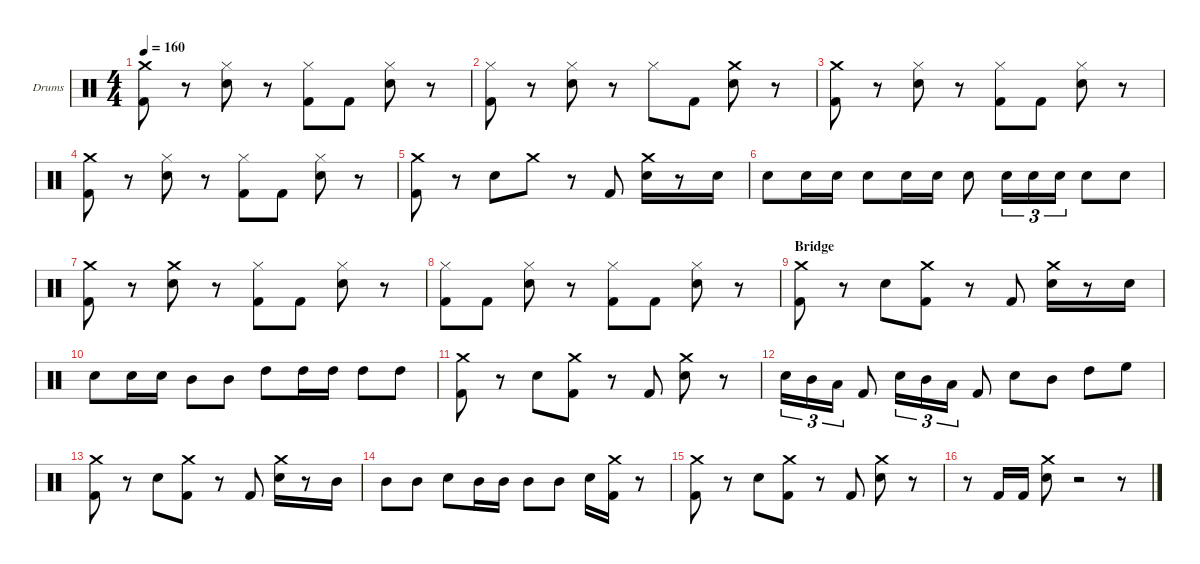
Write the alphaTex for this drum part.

\hideDynamics
\bracketExtendMode nobrackets
\firstSystemTrackNameOrientation horizontal
\otherSystemsTrackNameOrientation horizontal
\track ("Drumkit" "Drums") {instrument percussion}
\staff {score}
\articulation defaults
\ts (4 4)
\tempo 160
\clef neutral
\ks c
("Kick (hit) 2" "Crash medium (hit)").8{dy f} r.8 ("Hi-Hat (closed)" "Snare (hit) 2").8 r.8 ("Hi-Hat (closed)" "Kick (hit) 2").8 "Kick (hit) 2".8 ("Snare (hit) 2" "Hi-Hat (closed)").8 r.8 |
("Kick (hit) 2" "Hi-Hat (closed)").8 r.8 ("Snare (hit) 2" "Hi-Hat (closed)").8 r.8 "Hi-Hat (closed)".8 "Kick (hit) 2".8 ("Crash medium (hit)" "Snare (hit) 2").8 r.8 |
("Kick (hit) 2" "Crash medium (hit)").8 r.8 ("Hi-Hat (closed)" "Snare (hit) 2").8 r.8 ("Hi-Hat (closed)" "Kick (hit) 2").8 "Kick (hit) 2".8 ("Snare (hit) 2" "Hi-Hat (closed)").8 r.8 |
("Kick (hit) 2" "Crash medium (hit)").8 r.8 ("Hi-Hat (closed)" "Snare (hit) 2").8 r.8 ("Hi-Hat (closed)" "Kick (hit) 2").8 "Kick (hit) 2".8 ("Snare (hit) 2" "Hi-Hat (closed)").8 r.8 |
("Crash medium (hit)" "Kick (hit) 2").8 r.8 "Snare (hit) 2".8 "Crash medium (hit)".8 r.8 "Kick (hit) 2".8 ("Crash medium (hit)" "Snare (hit) 2").16 r.8 "Snare (hit) 2".16 |
"Snare (hit) 2".8 "Snare (hit) 2".16 "Snare (hit) 2".16 "Snare (hit) 2".8 "Snare (hit) 2".16 "Snare (hit) 2".16 "Snare (hit) 2".8 "Snare (hit) 2".16{tu (3 2)} "Snare (hit) 2".16{tu (3 2)} "Snare (hit) 2".16{tu (3 2)} "Snare (hit) 2".8 "Snare (hit) 2".8 |
("Crash medium (hit)" "Kick (hit) 2").8 r.8 ("Crash medium (hit)" "Snare (hit) 2").8 r.8 ("Hi-Hat (closed)" "Kick (hit) 2").8 "Kick (hit) 2".8 ("Hi-Hat (closed)" "Snare (hit) 2").8 r.8 |
("Kick (hit) 2" "Hi-Hat (closed)").8 "Kick (hit) 2".8 ("Snare (hit) 2" "Hi-Hat (closed)").8 r.8 ("Kick (hit) 2" "Hi-Hat (closed)").8 "Kick (hit) 2".8 ("Snare (hit) 2" "Hi-Hat (closed)").8 r.8 |
\section ("" "Bridge")
("Crash medium (hit)" "Kick (hit) 2").8 r.8 "Snare (hit) 2".8 ("Crash medium (hit)" "Kick (hit) 2").8 r.8 "Kick (hit) 2".8 ("Crash medium (hit)" "Snare (hit) 2").16 r.8 "Snare (hit) 2".16 |
"Snare (hit) 2".8 "Snare (hit) 2".16 "Snare (hit) 2".16 "Mid Tom (hit)".8 "Mid Tom (hit)".8 "High Tom (hit)".8 "High Tom (hit)".16 "High Tom (hit)".16 "High Tom (hit)".8 "High Tom (hit)".8 |
("Kick (hit) 2" "Crash medium (hit)").8 r.8 "Snare (hit) 2".8 ("Crash medium (hit)" "Kick (hit) 2").8 r.8 "Kick (hit) 2".8 ("Crash medium (hit)" "Snare (hit) 2").8 r.8 |
"Snare (hit) 2".16{tu (3 2)} "Mid Tom (hit)".16{tu (3 2)} "Low Tom (hit)".16{tu (3 2)} "Kick (hit) 2".8 "Snare (hit) 2".16{tu (3 2)} "Mid Tom (hit)".16{tu (3 2)} "Low Tom (hit)".16{tu (3 2)} "Kick (hit) 2".8 "Snare (hit) 2".8 "Mid Tom (hit)".8 "High Tom (hit)".8 "High Floor Tom (hit)".8 |
("Kick (hit) 2" "Crash medium (hit)").8 r.8 "Snare (hit) 2".8 ("Crash medium (hit)" "Kick (hit) 2").8 r.8 "Kick (hit) 2".8 ("Crash medium (hit)" "Snare (hit) 2").16 r.8 "Mid Tom (hit)".16 |
"Mid Tom (hit)".8 "Mid Tom (hit)".8 "Snare (hit) 2".8 "Mid Tom (hit)".16 "Mid Tom (hit)".16 "Mid Tom (hit)".8 "Mid Tom (hit)".8 "Snare (hit) 2".16 ("Kick (hit) 2" "Crash medium (hit)").16 r.8 |
("Crash medium (hit)" "Kick (hit) 2").8 r.8 "Snare (hit) 2".8 ("Crash medium (hit)" "Kick (hit) 2").8 r.8 "Kick (hit) 2".8 ("Snare (hit) 2" "Crash medium (hit)").8 r.8 |
r.8 "Kick (hit) 2".16 "Kick (hit) 2".16 ("Crash medium (hit)" "Snare (hit) 2").8 r.2 r.8
